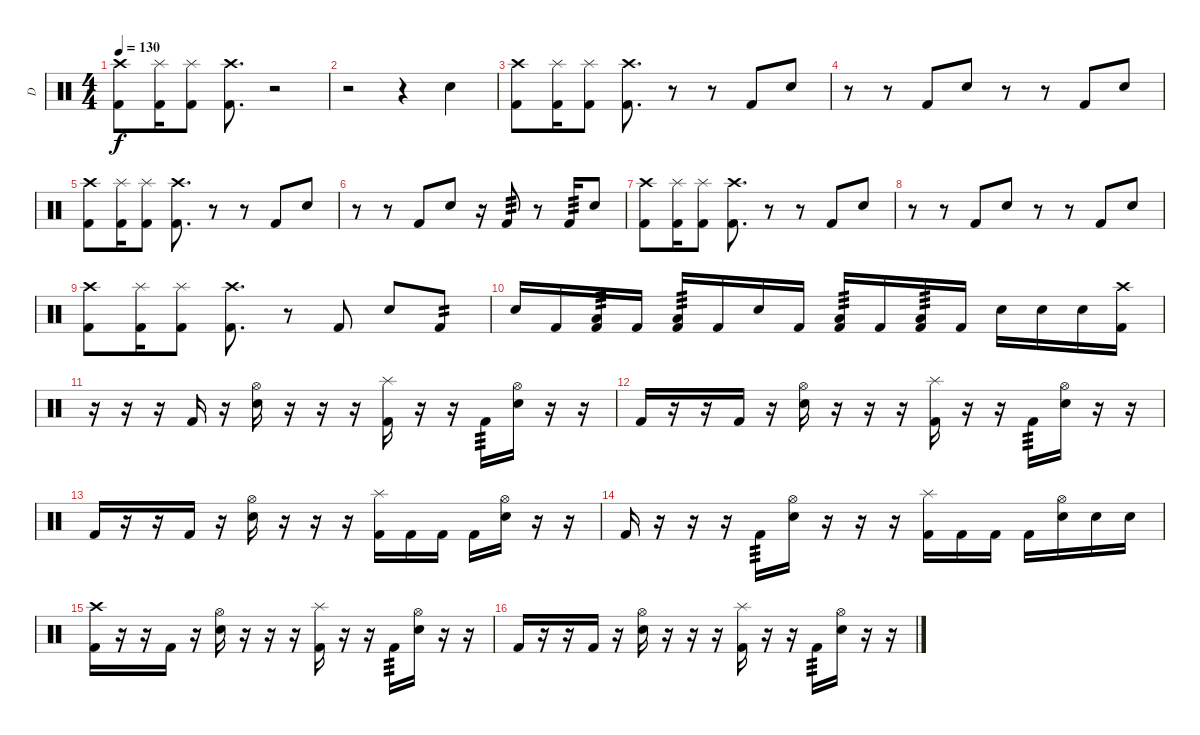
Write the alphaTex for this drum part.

\track ("D" "D") {instrument percussion}
\staff {score}
\articulation defaults
\ts (4 4)
\tempo 130
\clef neutral
\ks c
("Crash high (hit)" "Kick (hit) 2").8{dy f} ("Splash (hit)" "Kick (hit) 2").16 ("Splash (hit)" "Kick (hit) 2").8 ("Crash high (hit)" "Kick (hit) 2").8{d} r.2 |
r.2 r.4 "Electric Snare (hit)".4 |
("Crash high (hit)" "Kick (hit) 2").8 ("Splash (hit)" "Kick (hit) 2").16 ("Splash (hit)" "Kick (hit) 2").8 ("Crash high (hit)" "Kick (hit) 2").8{d} r.8 r.8 "Kick (hit) 2".8 "Electric Snare (hit)".8 |
r.8 r.8 "Kick (hit) 2".8 "Electric Snare (hit)".8 r.8 r.8 "Kick (hit) 2".8 "Electric Snare (hit)".8 |
("Crash high (hit)" "Kick (hit) 2").8 ("Splash (hit)" "Kick (hit) 2").16 ("Splash (hit)" "Kick (hit) 2").8 ("Crash high (hit)" "Kick (hit) 2").8{d} r.8 r.8 "Kick (hit) 2".8 "Electric Snare (hit)".8 |
r.8 r.8 "Kick (hit) 2".8 "Electric Snare (hit)".8 r.16 "Kick (hit) 2".8{tp 3} r.8 "Kick (hit) 2".16{tp 3} "Electric Snare (hit)".8 |
("Crash high (hit)" "Kick (hit) 2").8 ("Splash (hit)" "Kick (hit) 2").16 ("Splash (hit)" "Kick (hit) 2").8 ("Crash high (hit)" "Kick (hit) 2").8{d} r.8 r.8 "Kick (hit) 2".8 "Electric Snare (hit)".8 |
r.8 r.8 "Kick (hit) 2".8 "Electric Snare (hit)".8 r.8 r.8 "Kick (hit) 2".8 "Electric Snare (hit)".8 |
("Crash high (hit)" "Kick (hit) 2").8 ("Splash (hit)" "Kick (hit) 2").16 ("Splash (hit)" "Kick (hit) 2").8 ("Crash high (hit)" "Kick (hit) 2").8{d} r.8 "Kick (hit) 2".8 "Electric Snare (hit)".8 "Kick (hit) 2".8{tp 2} |
"Electric Snare (hit)".16 "Kick (hit) 2".16 ("Low Tom (hit)" "Kick (hit) 2").16{tp 3} "Kick (hit) 2".16 ("Low Tom (hit)" "Kick (hit) 2").16{tp 3} "Kick (hit) 2".16 "Electric Snare (hit)".16 "Kick (hit) 2".16 ("Low Tom (hit)" "Kick (hit) 2").16{tp 3} "Kick (hit) 2".16 ("Low Tom (hit)" "Kick (hit) 2").16{tp 3} "Kick (hit) 2".16 "Electric Snare (hit)".16 "Electric Snare (hit)".16 "Electric Snare (hit)".16 ("Crash high (hit)" "Kick (hit) 2").16 |
r.16 r.16 r.16 "Kick (hit) 2".16 r.16 ("Electric Snare (hit)" "Hi-Hat (open)").16 r.16 r.16 r.16 ("Kick (hit) 2" "Splash (hit)").16 r.16 r.16 "Kick (hit) 2".16{tp 3} ("Electric Snare (hit)" "Hi-Hat (open)").16 r.16 r.16 |
"Kick (hit) 2".16 r.16 r.16 "Kick (hit) 2".16 r.16 ("Electric Snare (hit)" "Hi-Hat (open)").16 r.16 r.16 r.16 ("Kick (hit) 2" "Splash (hit)").16 r.16 r.16 "Kick (hit) 2".16{tp 3} ("Electric Snare (hit)" "Hi-Hat (open)").16 r.16 r.16 |
"Kick (hit) 2".16 r.16 r.16 "Kick (hit) 2".16 r.16 ("Electric Snare (hit)" "Hi-Hat (open)").16 r.16 r.16 r.16 ("Kick (hit) 2" "Splash (hit)").16 "Kick (hit) 2".16 "Kick (hit) 2".16 "Kick (hit) 2".16 ("Electric Snare (hit)" "Hi-Hat (open)").16 r.16 r.16 |
"Kick (hit) 2".16 r.16 r.16 r.16 "Kick (hit) 2".16{tp 3} ("Electric Snare (hit)" "Hi-Hat (open)").16 r.16 r.16 r.16 ("Kick (hit) 2" "Splash (hit)").16 "Kick (hit) 2".16 "Kick (hit) 2".16 "Kick (hit) 2".16 ("Electric Snare (hit)" "Hi-Hat (open)").16 "Electric Snare (hit)".16 "Electric Snare (hit)".16 |
("Crash high (hit)" "Kick (hit) 2").16 r.16 r.16 "Kick (hit) 2".16 r.16 ("Electric Snare (hit)" "Hi-Hat (open)").16 r.16 r.16 r.16 ("Kick (hit) 2" "Splash (hit)").16 r.16 r.16 "Kick (hit) 2".16{tp 3} ("Electric Snare (hit)" "Hi-Hat (open)").16 r.16 r.16 |
"Kick (hit) 2".16 r.16 r.16 "Kick (hit) 2".16 r.16 ("Electric Snare (hit)" "Hi-Hat (open)").16 r.16 r.16 r.16 ("Kick (hit) 2" "Splash (hit)").16 r.16 r.16 "Kick (hit) 2".16{tp 3} ("Electric Snare (hit)" "Hi-Hat (open)").16 r.16 r.16
